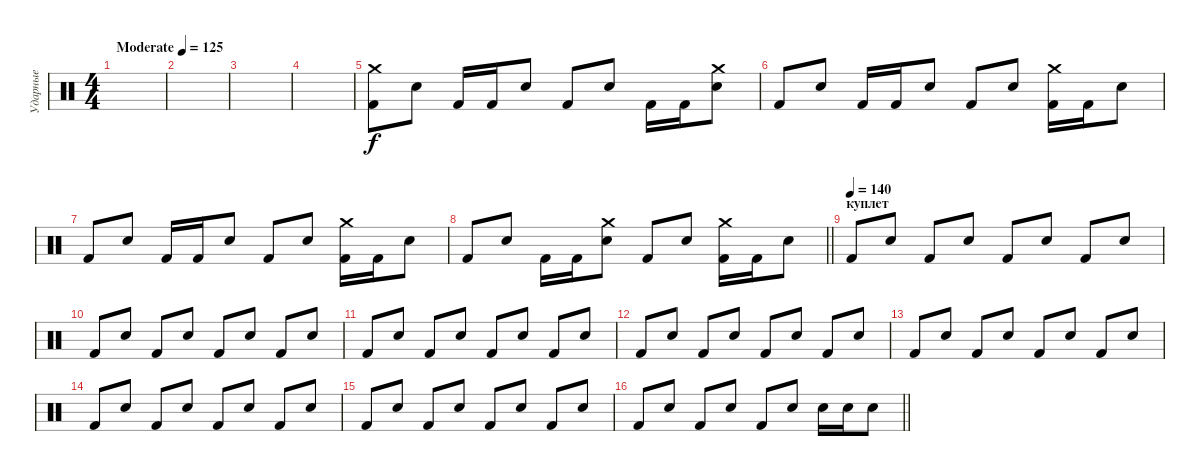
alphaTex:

\track ("Ударные" "Ударные") {instrument percussion}
\staff {score}
\articulation defaults
\ts (4 4)
\tempo (125 "Moderate")
\clef neutral
\ks c
|
|
|
|
("Kick (hit) 2" "Crash medium (hit)").8 "Electric Snare (hit)".8 "Kick (hit) 2".16 "Kick (hit) 2".16 "Electric Snare (hit)".8 "Kick (hit) 2".8 "Electric Snare (hit)".8 "Kick (hit) 2".16 "Kick (hit) 2".16 ("Electric Snare (hit)" "Crash medium (hit)").8 |
"Kick (hit) 2".8 "Electric Snare (hit)".8 "Kick (hit) 2".16 "Kick (hit) 2".16 "Electric Snare (hit)".8 "Kick (hit) 2".8 "Electric Snare (hit)".8 ("Kick (hit) 2" "Crash medium (hit)").16 "Kick (hit) 2".16 "Electric Snare (hit)".8 |
"Kick (hit) 2".8 "Electric Snare (hit)".8 "Kick (hit) 2".16 "Kick (hit) 2".16 "Electric Snare (hit)".8 "Kick (hit) 2".8 "Electric Snare (hit)".8 ("Kick (hit) 2" "Crash medium (hit)").16 "Kick (hit) 2".16 "Electric Snare (hit)".8 |
\barLineRight lightlight "Kick (hit) 2".8 "Electric Snare (hit)".8 "Kick (hit) 2".16 "Kick (hit) 2".16
("Electric Snare (hit)" "Crash medium (hit)").8 "Kick (hit) 2".8 "Electric Snare (hit)".8 ("Kick (hit) 2" "Crash medium (hit)").16 "Kick (hit) 2".16 "Electric Snare (hit)".8 |
\section ("" "куплет")
\tempo (140)
"Kick (hit) 2".8 "Snare (hit) 2".8 "Kick (hit) 2".8 "Snare (hit) 2".8 "Kick (hit) 2".8 "Snare (hit) 2".8 "Kick (hit) 2".8 "Snare (hit) 2".8 |
"Kick (hit) 2".8 "Snare (hit) 2".8 "Kick (hit) 2".8 "Snare (hit) 2".8 "Kick (hit) 2".8 "Snare (hit) 2".8 "Kick (hit) 2".8 "Snare (hit) 2".8 |
"Kick (hit) 2".8 "Snare (hit) 2".8 "Kick (hit) 2".8 "Snare (hit) 2".8 "Kick (hit) 2".8 "Snare (hit) 2".8 "Kick (hit) 2".8 "Snare (hit) 2".8 |
"Kick (hit) 2".8 "Snare (hit) 2".8 "Kick (hit) 2".8 "Snare (hit) 2".8 "Kick (hit) 2".8 "Snare (hit) 2".8 "Kick (hit) 2".8 "Snare (hit) 2".8 |
"Kick (hit) 2".8 "Snare (hit) 2".8 "Kick (hit) 2".8 "Snare (hit) 2".8 "Kick (hit) 2".8 "Snare (hit) 2".8 "Kick (hit) 2".8 "Snare (hit) 2".8 |
"Kick (hit) 2".8 "Snare (hit) 2".8 "Kick (hit) 2".8 "Snare (hit) 2".8 "Kick (hit) 2".8 "Snare (hit) 2".8 "Kick (hit) 2".8 "Snare (hit) 2".8 |
"Kick (hit) 2".8 "Snare (hit) 2".8 "Kick (hit) 2".8 "Snare (hit) 2".8 "Kick (hit) 2".8 "Snare (hit) 2".8 "Kick (hit) 2".8 "Snare (hit) 2".8 |
\barLineRight lightlight "Kick (hit) 2".8 "Snare (hit) 2".8 "Kick (hit) 2".8 "Snare (hit) 2".8 "Kick (hit) 2".8 "Snare (hit) 2".8 "Snare (hit) 2".16 "Snare (hit) 2".16 "Snare (hit) 2".8
